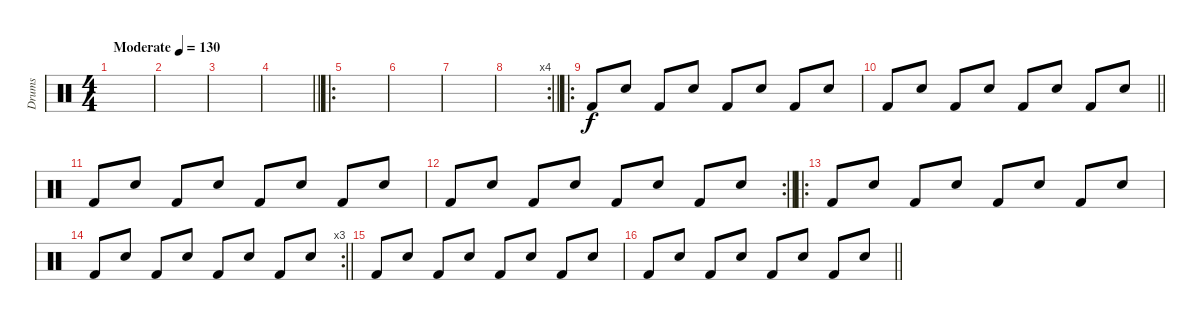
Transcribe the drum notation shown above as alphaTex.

\track ("Drums" "Drums") {instrument percussion}
\staff {score}
\articulation defaults
\ts (4 4)
\tempo (130 "Moderate")
\clef neutral
\ks c
|
|
|
\barLineRight lightlight
|
\ro
\section ("" "")
|
|
|
\rc 4
\barLineRight lightlight
|
\ro
\section ("" "")
"Kick (hit) 2".8 "Hand Clap (hit)".8 "Kick (hit) 2".8 "Hand Clap (hit)".8 "Kick (hit) 2".8 "Hand Clap (hit)".8 "Kick (hit) 2".8 "Hand Clap (hit)".8 |
\barLineRight lightlight "Kick (hit) 2".8 "Hand Clap (hit)".8 "Kick (hit) 2".8 "Hand Clap (hit)".8 "Kick (hit) 2".8 "Hand Clap (hit)".8 "Kick (hit) 2".8 "Hand Clap (hit)".8
|
"Kick (hit) 2".8 "Hand Clap (hit)".8 "Kick (hit) 2".8 "Hand Clap (hit)".8 "Kick (hit) 2".8 "Hand Clap (hit)".8 "Kick (hit) 2".8 "Hand Clap (hit)".8 |
\rc 2
\barLineRight lightlight "Kick (hit) 2".8 "Hand Clap (hit)".8 "Kick (hit) 2".8 "Hand Clap (hit)".8 "Kick (hit) 2".8 "Hand Clap (hit)".8 "Kick (hit) 2".8 "Hand Clap (hit)".8
|
\ro "Kick (hit) 2".8 "Hand Clap (hit)".8 "Kick (hit) 2".8 "Hand Clap (hit)".8 "Kick (hit) 2".8 "Hand Clap (hit)".8 "Kick (hit) 2".8 "Hand Clap (hit)".8
|
\rc 3
\barLineRight lightlight "Kick (hit) 2".8 "Hand Clap (hit)".8 "Kick (hit) 2".8 "Hand Clap (hit)".8 "Kick (hit) 2".8 "Hand Clap (hit)".8 "Kick (hit) 2".8 "Hand Clap (hit)".8
|
"Kick (hit) 2".8 "Hand Clap (hit)".8 "Kick (hit) 2".8 "Hand Clap (hit)".8 "Kick (hit) 2".8 "Hand Clap (hit)".8 "Kick (hit) 2".8 "Hand Clap (hit)".8 |
\barLineRight lightlight "Kick (hit) 2".8{volume 0} "Hand Clap (hit)".8 "Kick (hit) 2".8 "Hand Clap (hit)".8 "Kick (hit) 2".8 "Hand Clap (hit)".8 "Kick (hit) 2".8 "Hand Clap (hit)".8
